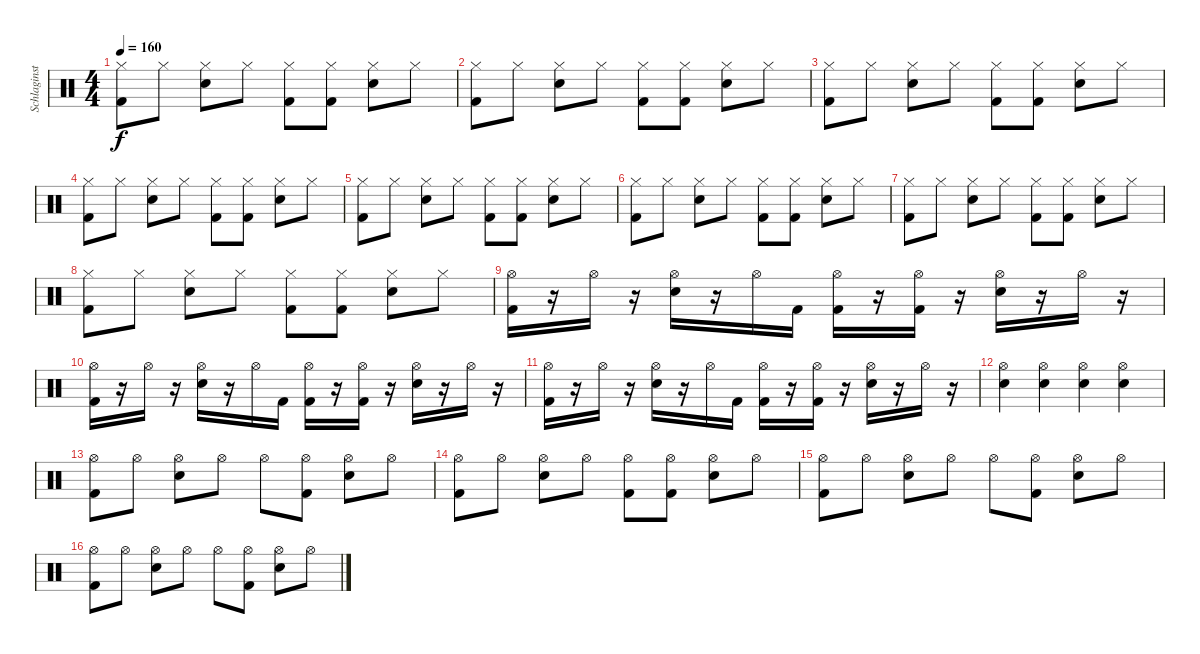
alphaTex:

\track ("Schlaginstrumente - Auswahl" "Schlaginst") {instrument percussion}
\staff {score}
\articulation defaults
\ts (4 4)
\tempo 160
\clef neutral
\ks c
("Hi-Hat (closed)" "Kick (hit) 2").8{dy f} "Hi-Hat (closed)".8 ("Hi-Hat (closed)" "Snare (hit) 2").8 "Hi-Hat (closed)".8 ("Hi-Hat (closed)" "Kick (hit) 2").8 ("Hi-Hat (closed)" "Kick (hit) 2").8 ("Hi-Hat (closed)" "Snare (hit) 2").8 "Hi-Hat (closed)".8 |
("Hi-Hat (closed)" "Kick (hit) 2").8 "Hi-Hat (closed)".8 ("Hi-Hat (closed)" "Snare (hit) 2").8 "Hi-Hat (closed)".8 ("Hi-Hat (closed)" "Kick (hit) 2").8 ("Hi-Hat (closed)" "Kick (hit) 2").8 ("Hi-Hat (closed)" "Snare (hit) 2").8 "Hi-Hat (closed)".8 |
("Hi-Hat (closed)" "Kick (hit) 2").8 "Hi-Hat (closed)".8 ("Hi-Hat (closed)" "Snare (hit) 2").8 "Hi-Hat (closed)".8 ("Hi-Hat (closed)" "Kick (hit) 2").8 ("Hi-Hat (closed)" "Kick (hit) 2").8 ("Hi-Hat (closed)" "Snare (hit) 2").8 "Hi-Hat (closed)".8 |
("Hi-Hat (closed)" "Kick (hit) 2").8 "Hi-Hat (closed)".8 ("Hi-Hat (closed)" "Snare (hit) 2").8 "Hi-Hat (closed)".8 ("Hi-Hat (closed)" "Kick (hit) 2").8 ("Hi-Hat (closed)" "Kick (hit) 2").8 ("Hi-Hat (closed)" "Snare (hit) 2").8 "Hi-Hat (closed)".8 |
("Hi-Hat (closed)" "Kick (hit) 2").8 "Hi-Hat (closed)".8 ("Hi-Hat (closed)" "Snare (hit) 2").8 "Hi-Hat (closed)".8 ("Hi-Hat (closed)" "Kick (hit) 2").8 ("Hi-Hat (closed)" "Kick (hit) 2").8 ("Hi-Hat (closed)" "Snare (hit) 2").8 "Hi-Hat (closed)".8 |
("Hi-Hat (closed)" "Kick (hit) 2").8 "Hi-Hat (closed)".8 ("Hi-Hat (closed)" "Snare (hit) 2").8 "Hi-Hat (closed)".8 ("Hi-Hat (closed)" "Kick (hit) 2").8 ("Hi-Hat (closed)" "Kick (hit) 2").8 ("Hi-Hat (closed)" "Snare (hit) 2").8 "Hi-Hat (closed)".8 |
("Hi-Hat (closed)" "Kick (hit) 2").8 "Hi-Hat (closed)".8 ("Hi-Hat (closed)" "Snare (hit) 2").8 "Hi-Hat (closed)".8 ("Hi-Hat (closed)" "Kick (hit) 2").8 ("Hi-Hat (closed)" "Kick (hit) 2").8 ("Hi-Hat (closed)" "Snare (hit) 2").8 "Hi-Hat (closed)".8 |
("Hi-Hat (closed)" "Kick (hit) 2").8 "Hi-Hat (closed)".8 ("Hi-Hat (closed)" "Snare (hit) 2").8 "Hi-Hat (closed)".8 ("Hi-Hat (closed)" "Kick (hit) 2").8 ("Hi-Hat (closed)" "Kick (hit) 2").8 ("Hi-Hat (closed)" "Snare (hit) 2").8 "Hi-Hat (closed)".8 |
("Hi-Hat (open)" "Kick (hit) 2").16 r.16 "Hi-Hat (open)".16 r.16 ("Hi-Hat (open)" "Snare (hit) 2").16 r.16 "Hi-Hat (open)".16 "Kick (hit) 2".16 ("Hi-Hat (open)" "Kick (hit) 2").16 r.16 ("Hi-Hat (open)" "Kick (hit) 2").16 r.16 ("Hi-Hat (open)" "Snare (hit) 2").16 r.16 "Hi-Hat (open)".16 r.16 |
("Hi-Hat (open)" "Kick (hit) 2").16 r.16 "Hi-Hat (open)".16 r.16 ("Hi-Hat (open)" "Snare (hit) 2").16 r.16 "Hi-Hat (open)".16 "Kick (hit) 2".16 ("Hi-Hat (open)" "Kick (hit) 2").16 r.16 ("Hi-Hat (open)" "Kick (hit) 2").16 r.16 ("Hi-Hat (open)" "Snare (hit) 2").16 r.16 "Hi-Hat (open)".16 r.16 |
("Hi-Hat (open)" "Kick (hit) 2").16 r.16 "Hi-Hat (open)".16 r.16 ("Hi-Hat (open)" "Snare (hit) 2").16 r.16 "Hi-Hat (open)".16 "Kick (hit) 2".16 ("Hi-Hat (open)" "Kick (hit) 2").16 r.16 ("Hi-Hat (open)" "Kick (hit) 2").16 r.16 ("Hi-Hat (open)" "Snare (hit) 2").16 r.16 "Hi-Hat (open)".16 r.16 |
("Hi-Hat (open)" "Snare (hit) 2").4 ("Hi-Hat (open)" "Snare (hit) 2").4 ("Hi-Hat (open)" "Snare (hit) 2").4 ("Hi-Hat (open)" "Snare (hit) 2").4 |
("Kick (hit) 2" "Hi-Hat (open)").8 "Hi-Hat (open)".8 ("Snare (hit) 2" "Hi-Hat (open)").8 "Hi-Hat (open)".8 "Hi-Hat (open)".8 ("Kick (hit) 2" "Hi-Hat (open)").8 ("Snare (hit) 2" "Hi-Hat (open)").8 "Hi-Hat (open)".8 |
("Kick (hit) 2" "Hi-Hat (open)").8 "Hi-Hat (open)".8 ("Snare (hit) 2" "Hi-Hat (open)").8 "Hi-Hat (open)".8 ("Kick (hit) 2" "Hi-Hat (open)").8 ("Kick (hit) 2" "Hi-Hat (open)").8 ("Snare (hit) 2" "Hi-Hat (open)").8 "Hi-Hat (open)".8 |
("Kick (hit) 2" "Hi-Hat (open)").8 "Hi-Hat (open)".8 ("Snare (hit) 2" "Hi-Hat (open)").8 "Hi-Hat (open)".8 "Hi-Hat (open)".8 ("Kick (hit) 2" "Hi-Hat (open)").8 ("Snare (hit) 2" "Hi-Hat (open)").8 "Hi-Hat (open)".8 |
("Kick (hit) 2" "Hi-Hat (open)").8 "Hi-Hat (open)".8 ("Snare (hit) 2" "Hi-Hat (open)").8 "Hi-Hat (open)".8 "Hi-Hat (open)".8 ("Kick (hit) 2" "Hi-Hat (open)").8 ("Snare (hit) 2" "Hi-Hat (open)").8 "Hi-Hat (open)".8
